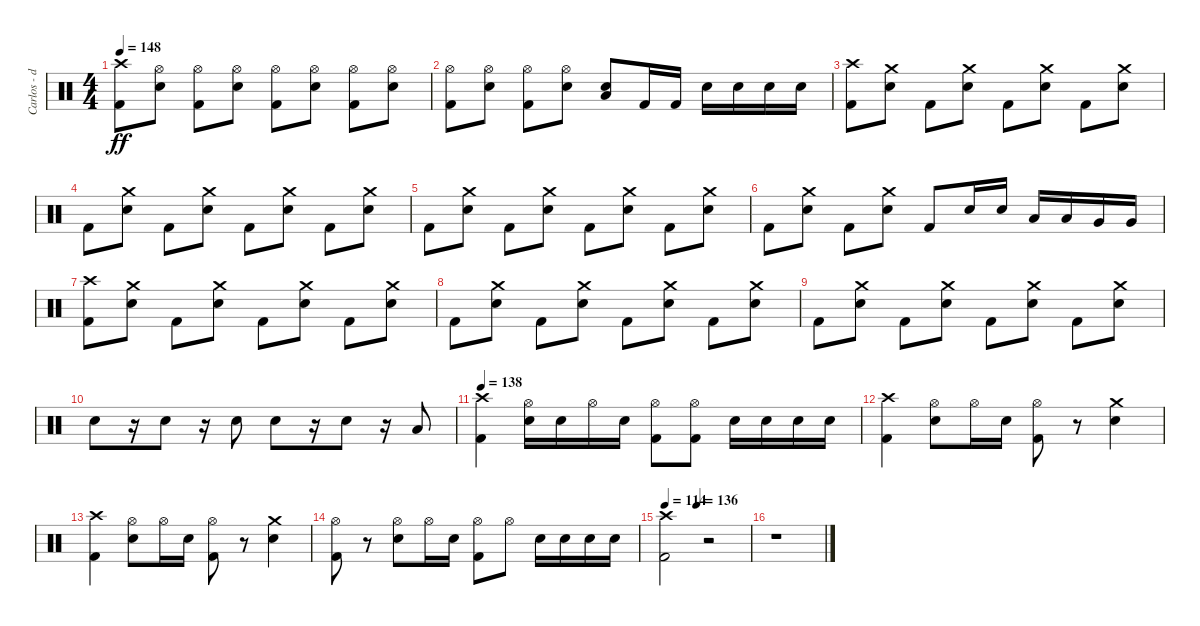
\track ("Carlos - drums" "Carlos - d") {instrument percussion}
\staff {score}
\articulation defaults
\ts (4 4)
\tempo 148
\clef neutral
\ks c
("Kick (hit) 2" "Crash high (hit)").8{dy ff} ("Electric Snare (hit)" "Hi-Hat (open)").8 ("Kick (hit) 2" "Hi-Hat (open)").8 ("Electric Snare (hit)" "Hi-Hat (open)").8 ("Kick (hit) 2" "Hi-Hat (open)").8 ("Electric Snare (hit)" "Hi-Hat (open)").8 ("Kick (hit) 2" "Hi-Hat (open)").8 ("Electric Snare (hit)" "Hi-Hat (open)").8 |
("Kick (hit) 2" "Hi-Hat (open)").8 ("Electric Snare (hit)" "Hi-Hat (open)").8 ("Kick (hit) 2" "Hi-Hat (open)").8 ("Electric Snare (hit)" "Hi-Hat (open)").8 ("Electric Snare (hit)" "Low Tom (hit)").8 "Kick (hit) 2".16 "Kick (hit) 2".16 "Electric Snare (hit)".16 "Electric Snare (hit)".16 "Electric Snare (hit)".16 "Electric Snare (hit)".16 |
("Kick (hit) 2" "Crash high (hit)").8 ("Electric Snare (hit)" "Crash medium (hit)").8 "Kick (hit) 2".8 ("Electric Snare (hit)" "Crash medium (hit)").8 "Kick (hit) 2".8 ("Electric Snare (hit)" "Crash medium (hit)").8 "Kick (hit) 2".8 ("Electric Snare (hit)" "Crash medium (hit)").8 |
"Kick (hit) 2".8 ("Electric Snare (hit)" "Crash medium (hit)").8 "Kick (hit) 2".8 ("Electric Snare (hit)" "Crash medium (hit)").8 "Kick (hit) 2".8 ("Electric Snare (hit)" "Crash medium (hit)").8 "Kick (hit) 2".8 ("Electric Snare (hit)" "Crash medium (hit)").8 |
"Kick (hit) 2".8 ("Electric Snare (hit)" "Crash medium (hit)").8 "Kick (hit) 2".8 ("Electric Snare (hit)" "Crash medium (hit)").8 "Kick (hit) 2".8 ("Electric Snare (hit)" "Crash medium (hit)").8 "Kick (hit) 2".8 ("Electric Snare (hit)" "Crash medium (hit)").8 |
"Kick (hit) 2".8 ("Electric Snare (hit)" "Crash medium (hit)").8 "Kick (hit) 2".8 ("Electric Snare (hit)" "Crash medium (hit)").8 "Kick (hit) 2".8 "Electric Snare (hit)".16 "Electric Snare (hit)".16 "Low Tom (hit)".16 "Low Tom (hit)".16 "Very Low Tom (hit)".16 "Very Low Tom (hit)".16 |
("Kick (hit) 2" "Crash high (hit)").8 ("Electric Snare (hit)" "Crash medium (hit)").8 "Kick (hit) 2".8 ("Electric Snare (hit)" "Crash medium (hit)").8 "Kick (hit) 2".8 ("Electric Snare (hit)" "Crash medium (hit)").8 "Kick (hit) 2".8 ("Electric Snare (hit)" "Crash medium (hit)").8 |
"Kick (hit) 2".8 ("Electric Snare (hit)" "Crash medium (hit)").8 "Kick (hit) 2".8 ("Electric Snare (hit)" "Crash medium (hit)").8 "Kick (hit) 2".8 ("Electric Snare (hit)" "Crash medium (hit)").8 "Kick (hit) 2".8 ("Electric Snare (hit)" "Crash medium (hit)").8 |
"Kick (hit) 2".8 ("Electric Snare (hit)" "Crash medium (hit)").8 "Kick (hit) 2".8 ("Electric Snare (hit)" "Crash medium (hit)").8 "Kick (hit) 2".8 ("Electric Snare (hit)" "Crash medium (hit)").8 "Kick (hit) 2".8 ("Electric Snare (hit)" "Crash medium (hit)").8 |
"Electric Snare (hit)".8 r.16 "Electric Snare (hit)".8 r.16 "Electric Snare (hit)".8 "Electric Snare (hit)".8 r.16 "Electric Snare (hit)".8 r.16 "Low Tom (hit)".8 |
\tempo 138
("Kick (hit) 2" "Crash high (hit)").4 ("Electric Snare (hit)" "Hi-Hat (open)").16 "Electric Snare (hit)".16 "Hi-Hat (open)".16 "Electric Snare (hit)".16 ("Kick (hit) 2" "Hi-Hat (open)").8 ("Hi-Hat (open)" "Kick (hit) 2").8 "Electric Snare (hit)".16 "Electric Snare (hit)".16 "Electric Snare (hit)".16 "Electric Snare (hit)".16 |
("Kick (hit) 2" "Crash high (hit)").4 ("Electric Snare (hit)" "Hi-Hat (open)").8 "Hi-Hat (open)".16 "Electric Snare (hit)".16 ("Kick (hit) 2" "Hi-Hat (open)").8 r.8 ("Electric Snare (hit)" "Crash medium (hit)").4 |
("Kick (hit) 2" "Crash high (hit)").4 ("Electric Snare (hit)" "Hi-Hat (open)").8 "Hi-Hat (open)".16 "Electric Snare (hit)".16 ("Kick (hit) 2" "Hi-Hat (open)").8 r.8 ("Electric Snare (hit)" "Crash medium (hit)").4 |
("Kick (hit) 2" "Hi-Hat (open)").8 r.8 ("Electric Snare (hit)" "Hi-Hat (open)").8 "Hi-Hat (open)".16 "Electric Snare (hit)".16 ("Kick (hit) 2" "Hi-Hat (open)").8 "Hi-Hat (open)".8 "Electric Snare (hit)".16 "Electric Snare (hit)".16 "Electric Snare (hit)".16 "Electric Snare (hit)".16 |
\tempo 114
\tempo (136 0.375)
("Kick (hit) 2" "Crash high (hit)").2 r.2 |
r.1
